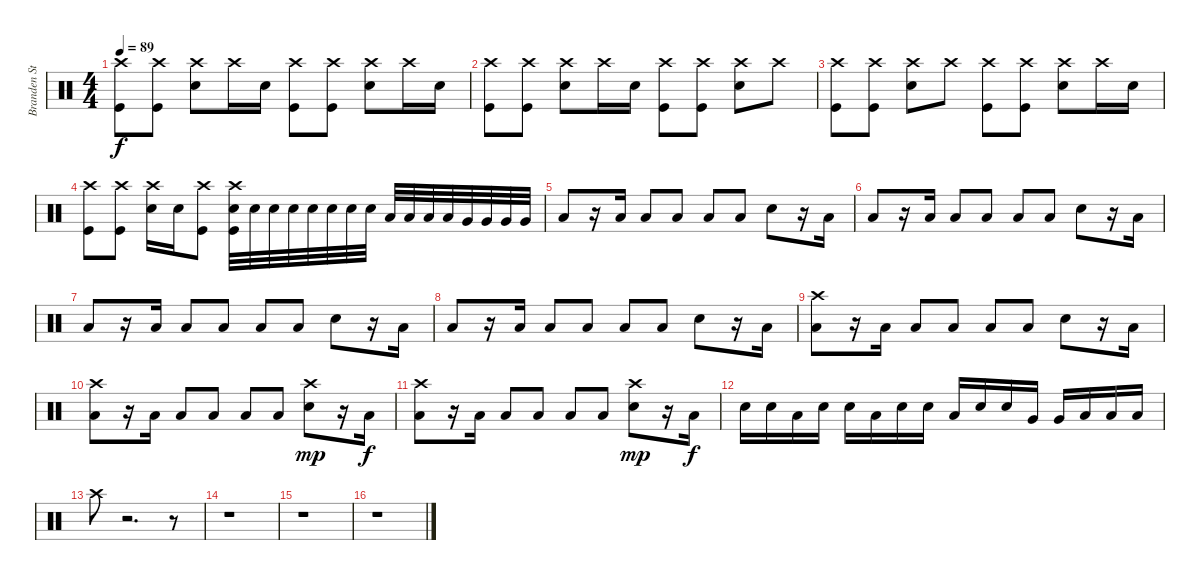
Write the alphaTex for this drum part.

\track ("Branden Steineckert - Drums" "Branden St") {instrument percussion}
\staff {score}
\articulation defaults
\ts (4 4)
\tempo 89
\clef neutral
\ks c
("Crash high (hit)" "Kick (hit)").8{dy f} ("Crash high (hit)" "Kick (hit)").8 ("Crash high (hit)" "Electric Snare (hit)").8 "Crash high (hit)".16 "Electric Snare (hit)".16 ("Crash high (hit)" "Kick (hit)").8 ("Crash high (hit)" "Kick (hit)").8 ("Crash high (hit)" "Electric Snare (hit)").8 "Crash high (hit)".16 "Electric Snare (hit)".16 |
("Crash high (hit)" "Kick (hit)").8 ("Crash high (hit)" "Kick (hit)").8 ("Crash high (hit)" "Electric Snare (hit)").8 "Crash high (hit)".16 "Electric Snare (hit)".16 ("Crash high (hit)" "Kick (hit)").8 ("Crash high (hit)" "Kick (hit)").8 ("Crash high (hit)" "Electric Snare (hit)").8 "Crash high (hit)".8 |
("Crash high (hit)" "Kick (hit)").8 ("Crash high (hit)" "Kick (hit)").8 ("Crash high (hit)" "Electric Snare (hit)").8 "Crash high (hit)".8 ("Crash high (hit)" "Kick (hit)").8 ("Crash high (hit)" "Kick (hit)").8 ("Crash high (hit)" "Electric Snare (hit)").8 "Crash high (hit)".16 "Electric Snare (hit)".16 |
("Crash high (hit)" "Kick (hit)").8 ("Crash high (hit)" "Kick (hit)").8 ("Crash high (hit)" "Electric Snare (hit)").16 "Electric Snare (hit)".16 ("Crash high (hit)" "Kick (hit)").8 ("Crash high (hit)" "Electric Snare (hit)" "Kick (hit)").32 "Electric Snare (hit)".32 "Electric Snare (hit)".32 "Electric Snare (hit)".32 "Electric Snare (hit)".32 "Electric Snare (hit)".32 "Electric Snare (hit)".32 "Electric Snare (hit)".32 "Low Tom (hit)".32 "Low Tom (hit)".32 "Low Tom (hit)".32 "Low Tom (hit)".32 "Very Low Tom (hit)".32 "Very Low Tom (hit)".32 "Very Low Tom (hit)".32 "Very Low Tom (hit)".32 |
"Low Floor Tom (hit)".8 r.16 "Low Floor Tom (hit)".16 "Low Floor Tom (hit)".8 "Low Floor Tom (hit)".8 "Low Floor Tom (hit)".8 "Low Floor Tom (hit)".8 "Electric Snare (hit)".8 r.16 "Low Floor Tom (hit)".16 |
"Low Floor Tom (hit)".8 r.16 "Low Floor Tom (hit)".16 "Low Floor Tom (hit)".8 "Low Floor Tom (hit)".8 "Low Floor Tom (hit)".8 "Low Floor Tom (hit)".8 "Electric Snare (hit)".8 r.16 "Low Floor Tom (hit)".16 |
"Low Floor Tom (hit)".8 r.16 "Low Floor Tom (hit)".16 "Low Floor Tom (hit)".8 "Low Floor Tom (hit)".8 "Low Floor Tom (hit)".8 "Low Floor Tom (hit)".8 "Electric Snare (hit)".8 r.16 "Low Floor Tom (hit)".16 |
"Low Floor Tom (hit)".8 r.16 "Low Floor Tom (hit)".16 "Low Floor Tom (hit)".8 "Low Floor Tom (hit)".8 "Low Floor Tom (hit)".8 "Low Floor Tom (hit)".8 "Electric Snare (hit)".8 r.16 "Low Floor Tom (hit)".16 |
("Crash high (hit)" "Low Floor Tom (hit)").8 r.16 "Low Floor Tom (hit)".16 "Low Floor Tom (hit)".8 "Low Floor Tom (hit)".8 "Low Floor Tom (hit)".8 "Low Floor Tom (hit)".8 "Electric Snare (hit)".8 r.16 "Low Floor Tom (hit)".16 |
("Crash high (hit)" "Low Floor Tom (hit)").8 r.16 "Low Floor Tom (hit)".16 "Low Floor Tom (hit)".8 "Low Floor Tom (hit)".8 "Low Floor Tom (hit)".8 "Low Floor Tom (hit)".8 ("Crash high (hit)" "Electric Snare (hit)").8{dy mp} r.16 "Low Floor Tom (hit)".16{dy f} |
("Crash high (hit)" "Low Floor Tom (hit)").8 r.16 "Low Floor Tom (hit)".16 "Low Floor Tom (hit)".8 "Low Floor Tom (hit)".8 "Low Floor Tom (hit)".8 "Low Floor Tom (hit)".8 ("Crash high (hit)" "Electric Snare (hit)").8{dy mp} r.16 "Low Floor Tom (hit)".16{dy f} |
"Electric Snare (hit)".16 "Electric Snare (hit)".16 "Low Floor Tom (hit)".16 "Electric Snare (hit)".16 "Electric Snare (hit)".16 "Low Floor Tom (hit)".16 "Electric Snare (hit)".16 "Electric Snare (hit)".16 "Low Floor Tom (hit)".16 "Electric Snare (hit)".16 "Electric Snare (hit)".16 "Very Low Tom (hit)".16 "Very Low Tom (hit)".16 "Low Floor Tom (hit)".16 "Low Floor Tom (hit)".16 "Low Floor Tom (hit)".16 |
"Crash high (hit)".8 r.2{d} r.8 |
r.1 |
r.1 |
r.1
